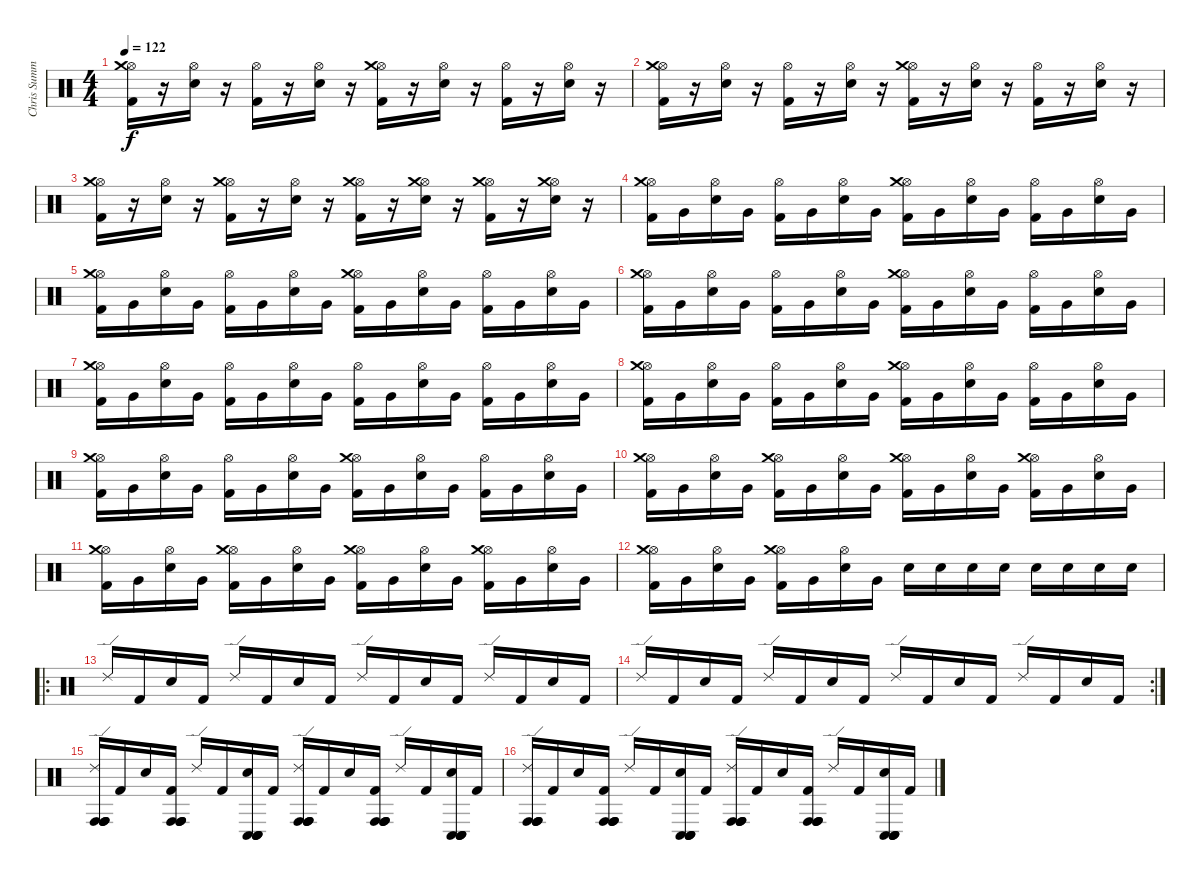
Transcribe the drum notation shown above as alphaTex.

\track ("Chris Summers" "Chris Summ") {instrument percussion}
\staff {score}
\articulation defaults
\ts (4 4)
\tempo 122
\clef neutral
\ks c
("Kick (hit) 2" "Hi-Hat (open)" "Crash medium (hit)").16{dy f} r.16 ("Electric Snare (hit)" "Hi-Hat (open)").16 r.16 ("Kick (hit) 2" "Hi-Hat (open)").16 r.16 ("Electric Snare (hit)" "Hi-Hat (open)").16 r.16 ("Kick (hit) 2" "Hi-Hat (open)" "Crash medium (hit)").16 r.16 ("Electric Snare (hit)" "Hi-Hat (open)").16 r.16 ("Kick (hit) 2" "Hi-Hat (open)").16 r.16 ("Electric Snare (hit)" "Hi-Hat (open)").16 r.16 |
("Kick (hit) 2" "Hi-Hat (open)" "Crash medium (hit)").16 r.16 ("Electric Snare (hit)" "Hi-Hat (open)").16 r.16 ("Kick (hit) 2" "Hi-Hat (open)").16 r.16 ("Electric Snare (hit)" "Hi-Hat (open)").16 r.16 ("Kick (hit) 2" "Hi-Hat (open)" "Crash medium (hit)").16 r.16 ("Electric Snare (hit)" "Hi-Hat (open)").16 r.16 ("Kick (hit) 2" "Hi-Hat (open)").16 r.16 ("Electric Snare (hit)" "Hi-Hat (open)").16 r.16 |
("Kick (hit) 2" "Hi-Hat (open)" "Crash medium (hit)").16 r.16 ("Electric Snare (hit)" "Hi-Hat (open)").16 r.16 ("Kick (hit) 2" "Hi-Hat (open)" "Crash medium (hit)").16 r.16 ("Electric Snare (hit)" "Hi-Hat (open)").16 r.16 ("Kick (hit) 2" "Hi-Hat (open)" "Crash medium (hit)").16 r.16 ("Electric Snare (hit)" "Hi-Hat (open)" "Crash medium (hit)").16 r.16 ("Kick (hit) 2" "Hi-Hat (open)" "Crash medium (hit)").16 r.16 ("Electric Snare (hit)" "Hi-Hat (open)" "Crash medium (hit)").16 r.16 |
("Kick (hit) 2" "Hi-Hat (open)" "Crash medium (hit)").16 "Very Low Tom (hit)".16 ("Electric Snare (hit)" "Hi-Hat (open)").16 "Very Low Tom (hit)".16 ("Kick (hit) 2" "Hi-Hat (open)").16 "Very Low Tom (hit)".16 ("Electric Snare (hit)" "Hi-Hat (open)").16 "Very Low Tom (hit)".16 ("Kick (hit) 2" "Hi-Hat (open)" "Crash medium (hit)").16 "Very Low Tom (hit)".16 ("Electric Snare (hit)" "Hi-Hat (open)").16 "Very Low Tom (hit)".16 ("Kick (hit) 2" "Hi-Hat (open)").16 "Very Low Tom (hit)".16 ("Electric Snare (hit)" "Hi-Hat (open)").16 "Very Low Tom (hit)".16 |
("Kick (hit) 2" "Hi-Hat (open)" "Crash medium (hit)").16 "Very Low Tom (hit)".16 ("Electric Snare (hit)" "Hi-Hat (open)").16 "Very Low Tom (hit)".16 ("Kick (hit) 2" "Hi-Hat (open)").16 "Very Low Tom (hit)".16 ("Electric Snare (hit)" "Hi-Hat (open)").16 "Very Low Tom (hit)".16 ("Kick (hit) 2" "Hi-Hat (open)" "Crash medium (hit)").16 "Very Low Tom (hit)".16 ("Electric Snare (hit)" "Hi-Hat (open)").16 "Very Low Tom (hit)".16 ("Kick (hit) 2" "Hi-Hat (open)").16 "Very Low Tom (hit)".16 ("Electric Snare (hit)" "Hi-Hat (open)").16 "Very Low Tom (hit)".16 |
("Kick (hit) 2" "Hi-Hat (open)" "Crash medium (hit)").16 "Very Low Tom (hit)".16 ("Electric Snare (hit)" "Hi-Hat (open)").16 "Very Low Tom (hit)".16 ("Kick (hit) 2" "Hi-Hat (open)").16 "Very Low Tom (hit)".16 ("Electric Snare (hit)" "Hi-Hat (open)").16 "Very Low Tom (hit)".16 ("Kick (hit) 2" "Hi-Hat (open)" "Crash medium (hit)").16 "Very Low Tom (hit)".16 ("Electric Snare (hit)" "Hi-Hat (open)").16 "Very Low Tom (hit)".16 ("Kick (hit) 2" "Hi-Hat (open)").16 "Very Low Tom (hit)".16 ("Electric Snare (hit)" "Hi-Hat (open)").16 "Very Low Tom (hit)".16 |
("Kick (hit) 2" "Hi-Hat (open)" "Crash medium (hit)").16 "Very Low Tom (hit)".16 ("Electric Snare (hit)" "Hi-Hat (open)").16 "Very Low Tom (hit)".16 ("Kick (hit) 2" "Hi-Hat (open)").16 "Very Low Tom (hit)".16 ("Electric Snare (hit)" "Hi-Hat (open)").16 "Very Low Tom (hit)".16 ("Kick (hit) 2" "Hi-Hat (open)").16 "Very Low Tom (hit)".16 ("Electric Snare (hit)" "Hi-Hat (open)").16 "Very Low Tom (hit)".16 ("Kick (hit) 2" "Hi-Hat (open)").16 "Very Low Tom (hit)".16 ("Electric Snare (hit)" "Hi-Hat (open)").16 "Very Low Tom (hit)".16 |
("Kick (hit) 2" "Hi-Hat (open)" "Crash medium (hit)").16 "Very Low Tom (hit)".16 ("Electric Snare (hit)" "Hi-Hat (open)").16 "Very Low Tom (hit)".16 ("Kick (hit) 2" "Hi-Hat (open)").16 "Very Low Tom (hit)".16 ("Electric Snare (hit)" "Hi-Hat (open)").16 "Very Low Tom (hit)".16 ("Kick (hit) 2" "Hi-Hat (open)" "Crash medium (hit)").16 "Very Low Tom (hit)".16 ("Electric Snare (hit)" "Hi-Hat (open)").16 "Very Low Tom (hit)".16 ("Kick (hit) 2" "Hi-Hat (open)").16 "Very Low Tom (hit)".16 ("Electric Snare (hit)" "Hi-Hat (open)").16 "Very Low Tom (hit)".16 |
("Kick (hit) 2" "Hi-Hat (open)" "Crash medium (hit)").16 "Very Low Tom (hit)".16 ("Electric Snare (hit)" "Hi-Hat (open)").16 "Very Low Tom (hit)".16 ("Kick (hit) 2" "Hi-Hat (open)").16 "Very Low Tom (hit)".16 ("Electric Snare (hit)" "Hi-Hat (open)").16 "Very Low Tom (hit)".16 ("Kick (hit) 2" "Hi-Hat (open)" "Crash medium (hit)").16 "Very Low Tom (hit)".16 ("Electric Snare (hit)" "Hi-Hat (open)").16 "Very Low Tom (hit)".16 ("Kick (hit) 2" "Hi-Hat (open)").16 "Very Low Tom (hit)".16 ("Electric Snare (hit)" "Hi-Hat (open)").16 "Very Low Tom (hit)".16 |
("Kick (hit) 2" "Hi-Hat (open)" "Crash medium (hit)").16 "Very Low Tom (hit)".16 ("Electric Snare (hit)" "Hi-Hat (open)").16 "Very Low Tom (hit)".16 ("Kick (hit) 2" "Hi-Hat (open)" "Crash medium (hit)").16 "Very Low Tom (hit)".16 ("Electric Snare (hit)" "Hi-Hat (open)").16 "Very Low Tom (hit)".16 ("Kick (hit) 2" "Hi-Hat (open)" "Crash medium (hit)").16 "Very Low Tom (hit)".16 ("Electric Snare (hit)" "Hi-Hat (open)").16 "Very Low Tom (hit)".16 ("Kick (hit) 2" "Hi-Hat (open)" "Crash medium (hit)").16 "Very Low Tom (hit)".16 ("Electric Snare (hit)" "Hi-Hat (open)").16 "Very Low Tom (hit)".16 |
("Kick (hit) 2" "Hi-Hat (open)" "Crash medium (hit)").16 "Very Low Tom (hit)".16 ("Electric Snare (hit)" "Hi-Hat (open)").16 "Very Low Tom (hit)".16 ("Kick (hit) 2" "Hi-Hat (open)" "Crash medium (hit)").16 "Very Low Tom (hit)".16 ("Electric Snare (hit)" "Hi-Hat (open)").16 "Very Low Tom (hit)".16 ("Kick (hit) 2" "Hi-Hat (open)" "Crash medium (hit)").16 "Very Low Tom (hit)".16 ("Electric Snare (hit)" "Hi-Hat (open)").16 "Very Low Tom (hit)".16 ("Kick (hit) 2" "Hi-Hat (open)" "Crash medium (hit)").16 "Very Low Tom (hit)".16 ("Electric Snare (hit)" "Hi-Hat (open)").16 "Very Low Tom (hit)".16 |
("Kick (hit) 2" "Hi-Hat (open)" "Crash medium (hit)").16 "Very Low Tom (hit)".16 ("Electric Snare (hit)" "Hi-Hat (open)").16 "Very Low Tom (hit)".16 ("Kick (hit) 2" "Hi-Hat (open)" "Crash medium (hit)").16 "Very Low Tom (hit)".16 ("Electric Snare (hit)" "Hi-Hat (open)").16 "Very Low Tom (hit)".16 "Electric Snare (hit)".16 "Electric Snare (hit)".16 "Electric Snare (hit)".16 "Electric Snare (hit)".16 "Electric Snare (hit)".16 "Electric Snare (hit)".16 "Electric Snare (hit)".16 "Electric Snare (hit)".16 |
\ro "Ride (edge) 2".16 "Kick (hit) 2".16 "Electric Snare (hit)".16 "Kick (hit) 2".16 "Ride (edge) 2".16 "Kick (hit) 2".16 "Electric Snare (hit)".16 "Kick (hit) 2".16 "Ride (edge) 2".16 "Kick (hit) 2".16 "Electric Snare (hit)".16 "Kick (hit) 2".16 "Ride (edge) 2".16 "Kick (hit) 2".16 "Electric Snare (hit)".16 "Kick (hit) 2".16
|
\rc 2 "Ride (edge) 2".16 "Kick (hit) 2".16 "Electric Snare (hit)".16 "Kick (hit) 2".16 "Ride (edge) 2".16 "Kick (hit) 2".16 "Electric Snare (hit)".16 "Kick (hit) 2".16 "Ride (edge) 2".16 "Kick (hit) 2".16 "Electric Snare (hit)".16 "Kick (hit) 2".16 "Ride (edge) 2".16 "Kick (hit) 2".16 "Electric Snare (hit)".16 "Kick (hit) 2".16
|
("Conga high (hit)" "Ride (edge) 2" "Conga high (hit)" "Conga high (hit)" "Conga high (hit)").16 "Kick (hit) 2".16 "Electric Snare (hit)".16 ("Kick (hit) 2" "Conga high (hit)" "Conga high (hit)" "Conga high (hit)" "Conga high (hit)").16 "Ride (edge) 2".16 "Kick (hit) 2".16 ("Electric Snare (hit)" "Conga low (hit)" "Conga low (hit)" "Conga low (hit)" "Conga low (hit)").16 "Kick (hit) 2".16 ("Conga high (hit)" "Ride (edge) 2" "Conga high (hit)" "Conga high (hit)" "Conga high (hit)").16 "Kick (hit) 2".16 "Electric Snare (hit)".16 ("Kick (hit) 2" "Conga high (hit)" "Conga high (hit)" "Conga high (hit)" "Conga high (hit)").16 "Ride (edge) 2".16 "Kick (hit) 2".16 ("Electric Snare (hit)" "Conga low (hit)" "Conga low (hit)" "Conga low (hit)" "Conga low (hit)").16 "Kick (hit) 2".16 |
("Conga high (hit)" "Ride (edge) 2" "Conga high (hit)" "Conga high (hit)" "Conga high (hit)").16 "Kick (hit) 2".16 "Electric Snare (hit)".16 ("Kick (hit) 2" "Conga high (hit)" "Conga high (hit)" "Conga high (hit)" "Conga high (hit)").16 "Ride (edge) 2".16 "Kick (hit) 2".16 ("Electric Snare (hit)" "Conga low (hit)" "Conga low (hit)" "Conga low (hit)" "Conga low (hit)").16 "Kick (hit) 2".16 ("Conga high (hit)" "Ride (edge) 2" "Conga high (hit)" "Conga high (hit)" "Conga high (hit)").16 "Kick (hit) 2".16 "Electric Snare (hit)".16 ("Kick (hit) 2" "Conga high (hit)" "Conga high (hit)" "Conga high (hit)" "Conga high (hit)").16 "Ride (edge) 2".16 "Kick (hit) 2".16 ("Electric Snare (hit)" "Conga low (hit)" "Conga low (hit)" "Conga low (hit)" "Conga low (hit)").16 "Kick (hit) 2".16
